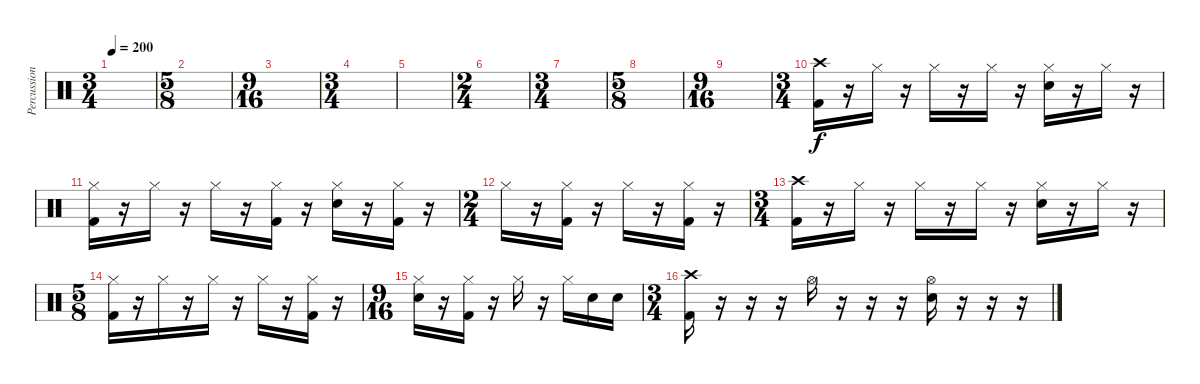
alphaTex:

\track ("Percussion" "Percussion") {instrument percussion}
\staff {score}
\articulation defaults
\ts (3 4)
\tempo 200
\clef neutral
\ks c
|
\ts (5 8)
|
\ts (9 16)
|
\ts (3 4)
|
|
\ts (2 4)
|
\ts (3 4)
|
\ts (5 8)
|
\ts (9 16)
|
\ts (3 4)
("Crash high (hit)" "Kick (hit) 2").16 r.16 "Hi-Hat (closed)".16 r.16 "Hi-Hat (closed)".16 r.16 "Hi-Hat (closed)".16 r.16 ("Hi-Hat (closed)" "Electric Snare (hit)").16 r.16 "Hi-Hat (closed)".16 r.16 |
("Hi-Hat (closed)" "Kick (hit) 2").16 r.16 "Hi-Hat (closed)".16 r.16 "Hi-Hat (closed)".16 r.16 ("Hi-Hat (closed)" "Kick (hit) 2").16 r.16 ("Hi-Hat (closed)" "Electric Snare (hit)").16 r.16 ("Hi-Hat (closed)" "Kick (hit) 2").16 r.16 |
\ts (2 4)
"Hi-Hat (closed)".16 r.16 ("Hi-Hat (closed)" "Kick (hit) 2").16 r.16 "Hi-Hat (closed)".16 r.16 ("Hi-Hat (closed)" "Kick (hit) 2").16 r.16 |
\ts (3 4)
("Crash high (hit)" "Kick (hit) 2").16 r.16 "Hi-Hat (closed)".16 r.16 "Hi-Hat (closed)".16 r.16 "Hi-Hat (closed)".16 r.16 ("Hi-Hat (closed)" "Electric Snare (hit)").16 r.16 "Hi-Hat (closed)".16 r.16 |
\ts (5 8)
("Hi-Hat (closed)" "Kick (hit) 2").16 r.16 "Hi-Hat (closed)".16 r.16 "Hi-Hat (closed)".16 r.16 "Hi-Hat (closed)".16 r.16 ("Hi-Hat (closed)" "Kick (hit) 2").16 r.16 |
\ts (9 16)
("Hi-Hat (closed)" "Electric Snare (hit)").16 r.16 ("Hi-Hat (closed)" "Kick (hit) 2").16 r.16 "Hi-Hat (closed)".16 r.16 "Hi-Hat (closed)".16 "Electric Snare (hit)".16 "Electric Snare (hit)".16 |
\ts (3 4)
("Crash high (hit)" "Kick (hit) 2").16 r.16 r.16 r.16 "Hi-Hat (open)".16 r.16 r.16 r.16 ("Hi-Hat (open)" "Electric Snare (hit)").16 r.16 r.16 r.16
